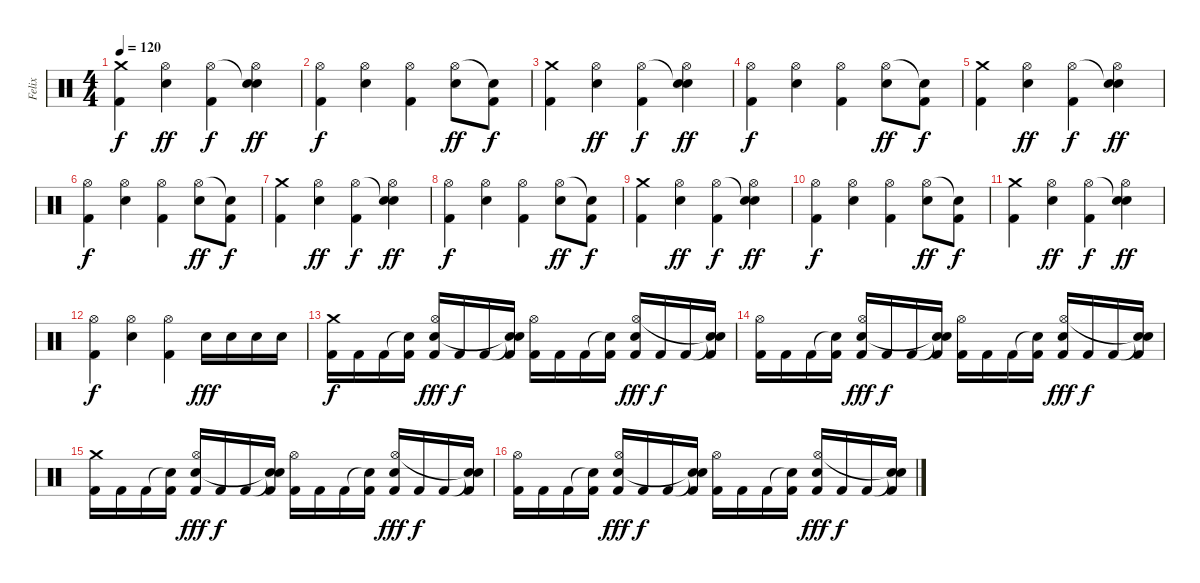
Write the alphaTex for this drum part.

\track ("Felix" "Felix") {instrument percussion}
\staff {score}
\articulation defaults
\ts (4 4)
\tempo 120
\clef neutral
\ks c
("Crash medium (hit)" "Kick (hit) 2").4{dy f} ("Hi-Hat (open)" "Electric Snare (hit)").4{dy ff} ("Hi-Hat (open)" "Kick (hit) 2").4{dy f} ("Snare (hit)"{t} "Hi-Hat (open)" "Electric Snare (hit)").4{dy ff} |
("Hi-Hat (open)" "Kick (hit) 2").4{dy f} ("Hi-Hat (open)" "Electric Snare (hit)").4 ("Hi-Hat (open)" "Kick (hit) 2").4 ("Hi-Hat (open)" "Electric Snare (hit)").8{dy ff} ("Snare (hit)"{t} "Kick (hit) 2").8{dy f} |
("Crash medium (hit)" "Kick (hit) 2").4 ("Hi-Hat (open)" "Electric Snare (hit)").4{dy ff} ("Hi-Hat (open)" "Kick (hit) 2").4{dy f} ("Snare (hit)"{t} "Hi-Hat (open)" "Electric Snare (hit)").4{dy ff} |
("Hi-Hat (open)" "Kick (hit) 2").4{dy f} ("Hi-Hat (open)" "Electric Snare (hit)").4 ("Hi-Hat (open)" "Kick (hit) 2").4 ("Hi-Hat (open)" "Electric Snare (hit)").8{dy ff} ("Snare (hit)"{t} "Kick (hit) 2").8{dy f} |
("Crash medium (hit)" "Kick (hit) 2").4 ("Hi-Hat (open)" "Electric Snare (hit)").4{dy ff} ("Hi-Hat (open)" "Kick (hit) 2").4{dy f} ("Snare (hit)"{t} "Hi-Hat (open)" "Electric Snare (hit)").4{dy ff} |
("Hi-Hat (open)" "Kick (hit) 2").4{dy f} ("Hi-Hat (open)" "Electric Snare (hit)").4 ("Hi-Hat (open)" "Kick (hit) 2").4 ("Hi-Hat (open)" "Electric Snare (hit)").8{dy ff} ("Snare (hit)"{t} "Kick (hit) 2").8{dy f} |
("Crash medium (hit)" "Kick (hit) 2").4 ("Hi-Hat (open)" "Electric Snare (hit)").4{dy ff} ("Hi-Hat (open)" "Kick (hit) 2").4{dy f} ("Snare (hit)"{t} "Hi-Hat (open)" "Electric Snare (hit)").4{dy ff} |
("Hi-Hat (open)" "Kick (hit) 2").4{dy f} ("Hi-Hat (open)" "Electric Snare (hit)").4 ("Hi-Hat (open)" "Kick (hit) 2").4 ("Hi-Hat (open)" "Electric Snare (hit)").8{dy ff} ("Snare (hit)"{t} "Kick (hit) 2").8{dy f} |
("Crash medium (hit)" "Kick (hit) 2").4 ("Hi-Hat (open)" "Electric Snare (hit)").4{dy ff} ("Hi-Hat (open)" "Kick (hit) 2").4{dy f} ("Snare (hit)"{t} "Hi-Hat (open)" "Electric Snare (hit)").4{dy ff} |
("Hi-Hat (open)" "Kick (hit) 2").4{dy f} ("Hi-Hat (open)" "Electric Snare (hit)").4 ("Hi-Hat (open)" "Kick (hit) 2").4 ("Hi-Hat (open)" "Electric Snare (hit)").8{dy ff} ("Snare (hit)"{t} "Kick (hit) 2").8{dy f} |
("Crash medium (hit)" "Kick (hit) 2").4 ("Hi-Hat (open)" "Electric Snare (hit)").4{dy ff} ("Hi-Hat (open)" "Kick (hit) 2").4{dy f} ("Snare (hit)"{t} "Hi-Hat (open)" "Electric Snare (hit)").4{dy ff} |
("Hi-Hat (open)" "Kick (hit) 2").4{dy f} ("Hi-Hat (open)" "Electric Snare (hit)").4 ("Hi-Hat (open)" "Kick (hit) 2").4 "Electric Snare (hit)".16{dy fff} "Electric Snare (hit)".16 "Electric Snare (hit)".16 "Electric Snare (hit)".16 |
("Crash medium (hit)" "Kick (hit) 2").16{dy f} "Kick (hit) 2".16 "Kick (hit) 2".16 ("Snare (hit)"{t} "Kick (hit) 2").16 ("Hi-Hat (open)" "Electric Snare (hit)" "Kick (hit) 2").16{dy fff} "Kick (hit) 2".16{dy f} "Kick (hit) 2".16 ("Snare (hit)"{t} "Snare (hit)"{t} "Kick (hit) 2").16 ("Hi-Hat (open)" "Kick (hit) 2").16 "Kick (hit) 2".16 "Kick (hit) 2".16 ("Snare (hit)"{t} "Kick (hit) 2").16 ("Electric Snare (hit)" "Hi-Hat (open)" "Kick (hit) 2").16{dy fff} "Kick (hit) 2".16{dy f} "Kick (hit) 2".16 ("Snare (hit)"{t} "Snare (hit)"{t} "Kick (hit) 2").16 |
("Hi-Hat (open)" "Kick (hit) 2").16 "Kick (hit) 2".16 "Kick (hit) 2".16 ("Snare (hit)"{t} "Kick (hit) 2").16 ("Hi-Hat (open)" "Electric Snare (hit)" "Kick (hit) 2").16{dy fff} "Kick (hit) 2".16{dy f} "Kick (hit) 2".16 ("Snare (hit)"{t} "Snare (hit)"{t} "Kick (hit) 2").16 ("Hi-Hat (open)" "Kick (hit) 2").16 "Kick (hit) 2".16 "Kick (hit) 2".16 ("Snare (hit)"{t} "Kick (hit) 2").16 ("Electric Snare (hit)" "Hi-Hat (open)" "Kick (hit) 2").16{dy fff} "Kick (hit) 2".16{dy f} "Kick (hit) 2".16 ("Snare (hit)"{t} "Snare (hit)"{t} "Kick (hit) 2").16 |
("Crash medium (hit)" "Kick (hit) 2").16 "Kick (hit) 2".16 "Kick (hit) 2".16 ("Snare (hit)"{t} "Kick (hit) 2").16 ("Hi-Hat (open)" "Electric Snare (hit)" "Kick (hit) 2").16{dy fff} "Kick (hit) 2".16{dy f} "Kick (hit) 2".16 ("Snare (hit)"{t} "Snare (hit)"{t} "Kick (hit) 2").16 ("Hi-Hat (open)" "Kick (hit) 2").16 "Kick (hit) 2".16 "Kick (hit) 2".16 ("Snare (hit)"{t} "Kick (hit) 2").16 ("Electric Snare (hit)" "Hi-Hat (open)" "Kick (hit) 2").16{dy fff} "Kick (hit) 2".16{dy f} "Kick (hit) 2".16 ("Snare (hit)"{t} "Snare (hit)"{t} "Kick (hit) 2").16 |
("Hi-Hat (open)" "Kick (hit) 2").16 "Kick (hit) 2".16 "Kick (hit) 2".16 ("Snare (hit)"{t} "Kick (hit) 2").16 ("Hi-Hat (open)" "Electric Snare (hit)" "Kick (hit) 2").16{dy fff} "Kick (hit) 2".16{dy f} "Kick (hit) 2".16 ("Snare (hit)"{t} "Snare (hit)"{t} "Kick (hit) 2").16 ("Hi-Hat (open)" "Kick (hit) 2").16 "Kick (hit) 2".16 "Kick (hit) 2".16 ("Snare (hit)"{t} "Kick (hit) 2").16 ("Electric Snare (hit)" "Hi-Hat (open)" "Kick (hit) 2").16{dy fff} "Kick (hit) 2".16{dy f} "Kick (hit) 2".16 ("Snare (hit)"{t} "Snare (hit)"{t} "Kick (hit) 2").16
